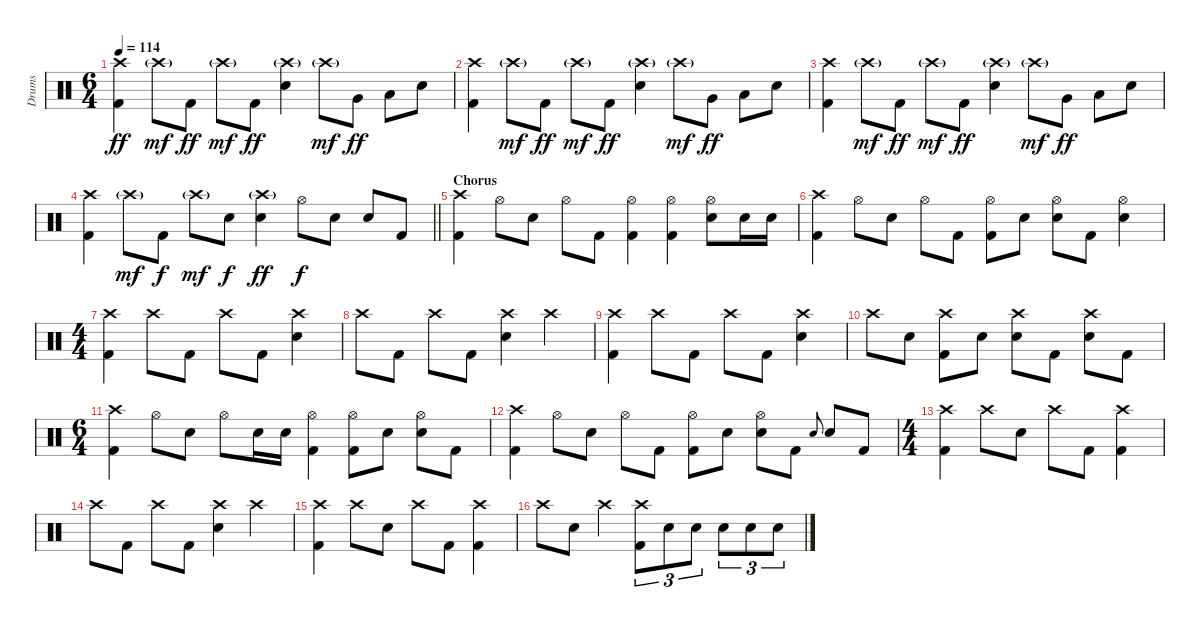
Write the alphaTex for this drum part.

\track ("Drums" "Drums") {instrument percussion}
\staff {score}
\articulation defaults
\ts (6 4)
\tempo 114
\clef neutral
\ks c
("Crash high (hit)" "Kick (hit) 2").4{dy ff} "Crash high (hit)"{g}.8{dy mf} "Kick (hit) 2".8{dy ff} "Crash high (hit)"{g}.8{dy mf} "Kick (hit) 2".8{dy ff} ("Crash high (hit)"{g} "Electric Snare (hit)").4 "Crash high (hit)"{g}.8{dy mf} "Very Low Tom (hit)".8{dy ff} "Low Tom (hit)".8 "Electric Snare (hit)".8 |
("Crash high (hit)" "Kick (hit) 2").4 "Crash high (hit)"{g}.8{dy mf} "Kick (hit) 2".8{dy ff} "Crash high (hit)"{g}.8{dy mf} "Kick (hit) 2".8{dy ff} ("Crash high (hit)"{g} "Electric Snare (hit)").4 "Crash high (hit)"{g}.8{dy mf} "Very Low Tom (hit)".8{dy ff} "Low Tom (hit)".8 "Electric Snare (hit)".8 |
("Crash high (hit)" "Kick (hit) 2").4 "Crash high (hit)"{g}.8{dy mf} "Kick (hit) 2".8{dy ff} "Crash high (hit)"{g}.8{dy mf} "Kick (hit) 2".8{dy ff} ("Crash high (hit)"{g} "Electric Snare (hit)").4 "Crash high (hit)"{g}.8{dy mf} "Very Low Tom (hit)".8{dy ff} "Low Tom (hit)".8 "Electric Snare (hit)".8 |
\barLineRight lightlight
("Crash high (hit)" "Kick (hit) 2").4 "Crash high (hit)"{g}.8{dy mf} "Kick (hit) 2".8{dy f} "Crash high (hit)"{g}.8{dy mf} "Electric Snare (hit)".8{dy f} ("Crash high (hit)"{g} "Electric Snare (hit)").4{dy ff} "Hi-Hat (open)".8{dy f} "Electric Snare (hit)".8 "Electric Snare (hit)".8 "Kick (hit) 2".8 |
\section ("" "Chorus")
("Crash high (hit)" "Kick (hit) 2").4 "Hi-Hat (open)".8 "Electric Snare (hit)".8 "Hi-Hat (open)".8 "Kick (hit) 2".8 ("Hi-Hat (open)" "Kick (hit) 2").4 ("Hi-Hat (open)" "Kick (hit) 2").4 ("Hi-Hat (open)" "Electric Snare (hit)").8 "Electric Snare (hit)".16 "Electric Snare (hit)".16 |
("Crash high (hit)" "Kick (hit) 2").4 "Hi-Hat (open)".8 "Electric Snare (hit)".8 "Hi-Hat (open)".8 "Kick (hit) 2".8 ("Hi-Hat (open)" "Kick (hit) 2").8 "Electric Snare (hit)".8 ("Hi-Hat (open)" "Electric Snare (hit)").8 "Kick (hit) 2".8 ("Hi-Hat (open)" "Electric Snare (hit)").4 |
\ts (4 4)
("Crash high (hit)" "Kick (hit) 2").4 "Crash high (hit)".8 "Kick (hit) 2".8 "Crash high (hit)".8 "Kick (hit) 2".8 ("Crash high (hit)" "Electric Snare (hit)").4 |
"Crash high (hit)".8 "Kick (hit) 2".8 "Crash high (hit)".8 "Kick (hit) 2".8 ("Crash high (hit)" "Electric Snare (hit)").4 "Crash high (hit)".4 |
("Crash high (hit)" "Kick (hit) 2").4 "Crash high (hit)".8 "Kick (hit) 2".8 "Crash high (hit)".8 "Kick (hit) 2".8 ("Crash high (hit)" "Electric Snare (hit)").4 |
"Crash high (hit)".8 "Electric Snare (hit)".8 ("Crash high (hit)" "Kick (hit) 2").8 "Electric Snare (hit)".8 ("Crash high (hit)" "Electric Snare (hit)").8 "Kick (hit) 2".8 ("Crash high (hit)" "Electric Snare (hit)").8 "Kick (hit) 2".8 |
\ts (6 4)
("Crash high (hit)" "Kick (hit) 2").4 "Hi-Hat (open)".8 "Electric Snare (hit)".8 "Hi-Hat (open)".8 "Electric Snare (hit)".16 "Electric Snare (hit)".16 ("Hi-Hat (open)" "Kick (hit) 2").4 ("Hi-Hat (open)" "Kick (hit) 2").8 "Electric Snare (hit)".8 ("Hi-Hat (open)" "Electric Snare (hit)").8 "Kick (hit) 2".8 |
("Crash high (hit)" "Kick (hit) 2").4 "Hi-Hat (open)".8 "Electric Snare (hit)".8 "Hi-Hat (open)".8 "Kick (hit) 2".8 ("Hi-Hat (open)" "Kick (hit) 2").8 "Electric Snare (hit)".8 ("Hi-Hat (open)" "Electric Snare (hit)").8 "Kick (hit) 2".8 "Electric Snare (hit)".8{gr onbeat} "Electric Snare (hit)".8 "Kick (hit) 2".8 |
\ts (4 4)
("Crash high (hit)" "Kick (hit) 2").4 "Crash high (hit)".8 "Electric Snare (hit)".8 "Crash high (hit)".8 "Kick (hit) 2".8 ("Crash high (hit)" "Kick (hit) 2").4 |
"Crash high (hit)".8 "Kick (hit) 2".8 "Crash high (hit)".8 "Kick (hit) 2".8 ("Crash high (hit)" "Electric Snare (hit)").4 "Crash high (hit)".4 |
("Crash high (hit)" "Kick (hit) 2").4 "Crash high (hit)".8 "Electric Snare (hit)".8 "Crash high (hit)".8 "Kick (hit) 2".8 ("Crash high (hit)" "Kick (hit) 2").4 |
"Crash high (hit)".8 "Electric Snare (hit)".8 "Crash high (hit)".4 ("Crash high (hit)" "Kick (hit) 2").8{tu (3 2)} "Electric Snare (hit)".8{tu (3 2)} "Electric Snare (hit)".8{tu (3 2)} "Electric Snare (hit)".8{tu (3 2)} "Electric Snare (hit)".8{tu (3 2)} "Electric Snare (hit)".8{tu (3 2)}
